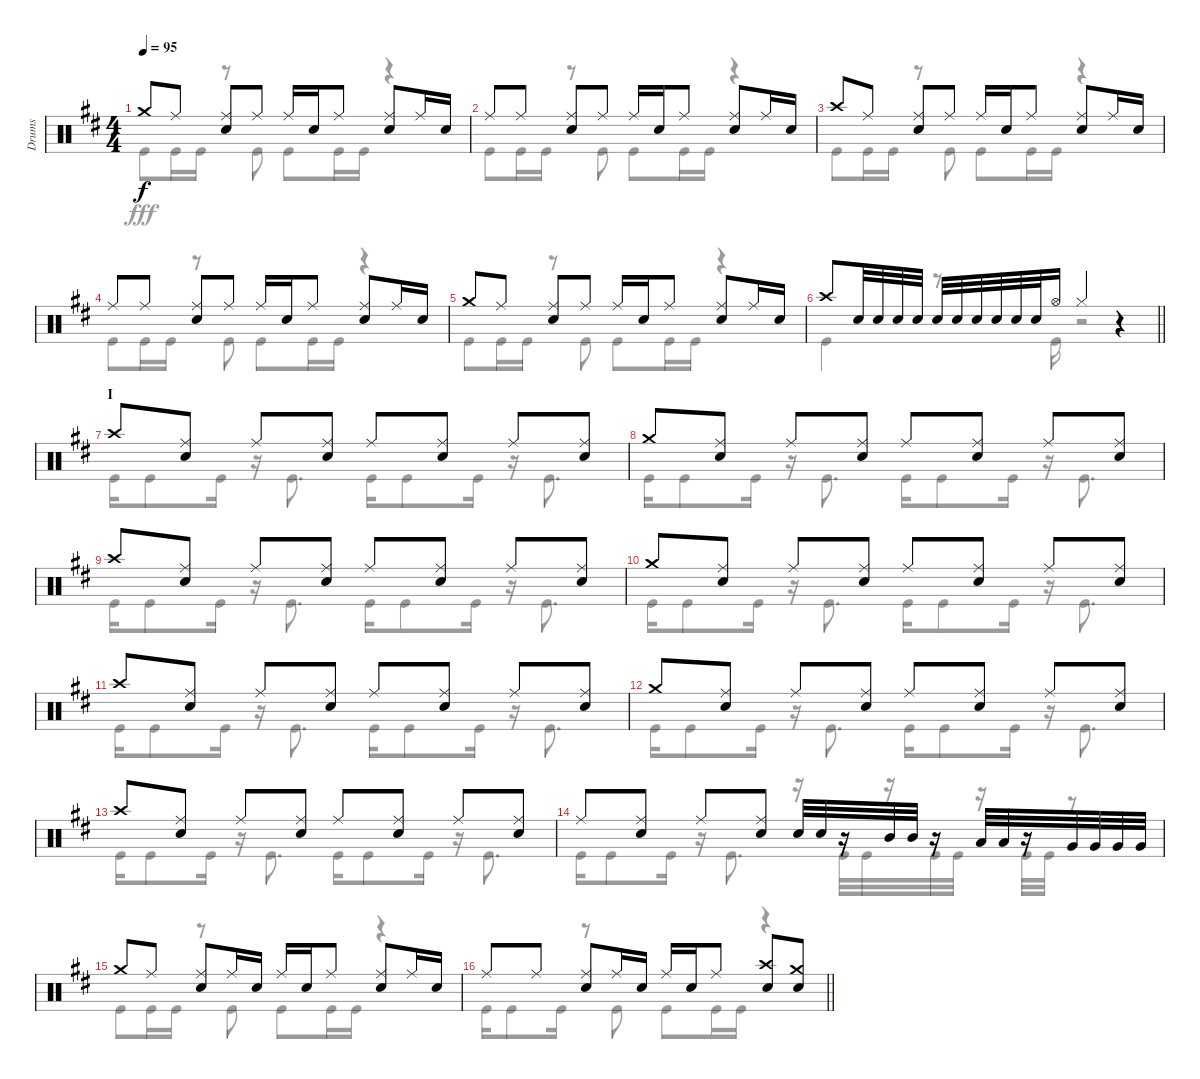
\track ("Drums" "Drums") {instrument percussion}
\staff {score}
\articulation defaults
\voice
\ts (4 4)
\tempo 95
\clef neutral
\ks d "Crash medium (hit)".8{dy f} "Ride (middle)".8
("Ride (middle)" "Snare (hit) 2").8 "Ride (middle)".8 "Ride (middle)".16 "Snare (hit) 2".16 "Ride (middle)".8 ("Ride (middle)" "Snare (hit) 2").8 "Ride (middle)".16 "Snare (hit) 2".16 |
"Ride (middle)".8 "Ride (middle)".8 ("Ride (middle)" "Snare (hit) 2").8 "Ride (middle)".8 "Ride (middle)".16 "Snare (hit) 2".16 "Ride (middle)".8 ("Ride (middle)" "Snare (hit) 2").8 "Ride (middle)".16 "Snare (hit) 2".16 |
"Crash high (hit)".8 "Ride (middle)".8 ("Ride (middle)" "Snare (hit) 2").8 "Ride (middle)".8 "Ride (middle)".16 "Snare (hit) 2".16 "Ride (middle)".8 ("Ride (middle)" "Snare (hit) 2").8 "Ride (middle)".16 "Snare (hit) 2".16 |
"Ride (middle)".8 "Ride (middle)".8 ("Ride (middle)" "Snare (hit) 2").8 "Ride (middle)".8 "Ride (middle)".16 "Snare (hit) 2".16 "Ride (middle)".8 ("Ride (middle)" "Snare (hit) 2").8 "Ride (middle)".16 "Snare (hit) 2".16 |
"Crash medium (hit)".8 "Ride (middle)".8 ("Ride (middle)" "Snare (hit) 2").8 "Ride (middle)".8 "Ride (middle)".16 "Snare (hit) 2".16 "Ride (middle)".8 ("Ride (middle)" "Snare (hit) 2").8 "Ride (middle)".16 "Snare (hit) 2".16 |
\barLineRight lightlight "Crash high (hit)".8 "Snare (hit) 2".32 "Snare (hit) 2".32 "Snare (hit) 2".32 "Snare (hit) 2".32 "Snare (hit) 2".32 "Snare (hit) 2".32 "Snare (hit) 2".32 "Snare (hit) 2".32 "Snare (hit) 2".32 "Snare (hit) 2".32 "Hi-Hat (open)".16 "Hi-Hat (closed)".4
r.4 |
\section ("" "I")
"Crash high (hit)".8 ("Ride (middle)" "Snare (hit) 2").8 "Ride (middle)".8 ("Ride (middle)" "Snare (hit) 2").8 "Ride (middle)".8 ("Ride (middle)" "Snare (hit) 2").8 "Ride (middle)".8 ("Ride (middle)" "Snare (hit) 2").8 |
"Crash medium (hit)".8 ("Ride (middle)" "Snare (hit) 2").8 "Ride (middle)".8 ("Ride (middle)" "Snare (hit) 2").8 "Ride (middle)".8 ("Ride (middle)" "Snare (hit) 2").8 "Ride (middle)".8 ("Ride (middle)" "Snare (hit) 2").8 |
"Crash high (hit)".8 ("Ride (middle)" "Snare (hit) 2").8 "Ride (middle)".8 ("Ride (middle)" "Snare (hit) 2").8 "Ride (middle)".8 ("Ride (middle)" "Snare (hit) 2").8 "Ride (middle)".8 ("Ride (middle)" "Snare (hit) 2").8 |
"Crash medium (hit)".8 ("Ride (middle)" "Snare (hit) 2").8 "Ride (middle)".8 ("Ride (middle)" "Snare (hit) 2").8 "Ride (middle)".8 ("Ride (middle)" "Snare (hit) 2").8 "Ride (middle)".8 ("Ride (middle)" "Snare (hit) 2").8 |
"Crash high (hit)".8 ("Ride (middle)" "Snare (hit) 2").8 "Ride (middle)".8 ("Ride (middle)" "Snare (hit) 2").8 "Ride (middle)".8 ("Ride (middle)" "Snare (hit) 2").8 "Ride (middle)".8 ("Ride (middle)" "Snare (hit) 2").8 |
"Crash medium (hit)".8 ("Ride (middle)" "Snare (hit) 2").8 "Ride (middle)".8 ("Ride (middle)" "Snare (hit) 2").8 "Ride (middle)".8 ("Ride (middle)" "Snare (hit) 2").8 "Ride (middle)".8 ("Ride (middle)" "Snare (hit) 2").8 |
"Crash high (hit)".8 ("Ride (middle)" "Snare (hit) 2").8 "Ride (middle)".8 ("Ride (middle)" "Snare (hit) 2").8 "Ride (middle)".8 ("Ride (middle)" "Snare (hit) 2").8 "Ride (middle)".8 ("Ride (middle)" "Snare (hit) 2").8 |
"Ride (middle)".8 ("Ride (middle)" "Snare (hit) 2").8 "Ride (middle)".8 ("Ride (middle)" "Snare (hit) 2").8 "Snare (hit) 2".32 "Snare (hit) 2".32 r.16 "Mid Tom (hit)".32 "Mid Tom (hit)".32 r.16 "Low Tom (hit)".32 "Low Tom (hit)".32 r.16 "Very Low Tom (hit)".32 "Very Low Tom (hit)".32 "Very Low Tom (hit)".32 "Very Low Tom (hit)".32 |
"Crash medium (hit)".8 "Ride (middle)".8 ("Ride (middle)" "Snare (hit) 2").8 "Ride (middle)".16 "Snare (hit) 2".16 "Ride (middle)".16 "Snare (hit) 2".16 "Ride (middle)".8 ("Ride (middle)" "Snare (hit) 2").8 "Ride (middle)".16 "Snare (hit) 2".16 |
\barLineRight lightlight "Ride (middle)".8 "Ride (middle)".8
("Ride (middle)" "Snare (hit) 2").8 "Ride (middle)".16 "Snare (hit) 2".16 "Ride (middle)".16 "Snare (hit) 2".16 "Ride (middle)".8 ("Crash high (hit)" "Snare (hit) 2").8 ("Crash medium (hit)" "Snare (hit) 2").8
\voice
\clef neutral
\ottava regular
\simile none
\ks d "Kick (hit)".8{dy fff} "Kick (hit)".16 "Kick (hit)".16
r.8 "Kick (hit)".8 "Kick (hit)".8 "Kick (hit)".16 "Kick (hit)".16 r.4 |
"Kick (hit)".8 "Kick (hit)".16 "Kick (hit)".16 r.8 "Kick (hit)".8 "Kick (hit)".8 "Kick (hit)".16 "Kick (hit)".16 r.4 |
"Kick (hit)".8 "Kick (hit)".16 "Kick (hit)".16 r.8 "Kick (hit)".8 "Kick (hit)".8 "Kick (hit)".16 "Kick (hit)".16 r.4 |
"Kick (hit)".8 "Kick (hit)".16 "Kick (hit)".16 r.8 "Kick (hit)".8 "Kick (hit)".8 "Kick (hit)".16 "Kick (hit)".16 r.4 |
"Kick (hit)".8 "Kick (hit)".16 "Kick (hit)".16 r.8 "Kick (hit)".8 "Kick (hit)".8 "Kick (hit)".16 "Kick (hit)".16 r.4 |
\barLineRight lightlight "Kick (hit)".4
r.8{d} "Kick (hit)".16 r.2 |
"Kick (hit)".16 "Kick (hit)".8 "Kick (hit)".16 r.16 "Kick (hit)".8{d} "Kick (hit)".16 "Kick (hit)".8 "Kick (hit)".16 r.16 "Kick (hit)".8{d} |
"Kick (hit)".16 "Kick (hit)".8 "Kick (hit)".16 r.16 "Kick (hit)".8{d} "Kick (hit)".16 "Kick (hit)".8 "Kick (hit)".16 r.16 "Kick (hit)".8{d} |
"Kick (hit)".16 "Kick (hit)".8 "Kick (hit)".16 r.16 "Kick (hit)".8{d} "Kick (hit)".16 "Kick (hit)".8 "Kick (hit)".16 r.16 "Kick (hit)".8{d} |
"Kick (hit)".16 "Kick (hit)".8 "Kick (hit)".16 r.16 "Kick (hit)".8{d} "Kick (hit)".16 "Kick (hit)".8 "Kick (hit)".16 r.16 "Kick (hit)".8{d} |
"Kick (hit)".16 "Kick (hit)".8 "Kick (hit)".16 r.16 "Kick (hit)".8{d} "Kick (hit)".16 "Kick (hit)".8 "Kick (hit)".16 r.16 "Kick (hit)".8{d} |
"Kick (hit)".16 "Kick (hit)".8 "Kick (hit)".16 r.16 "Kick (hit)".8{d} "Kick (hit)".16 "Kick (hit)".8 "Kick (hit)".16 r.16 "Kick (hit)".8{d} |
"Kick (hit)".16 "Kick (hit)".8 "Kick (hit)".16 r.16 "Kick (hit)".8{d} "Kick (hit)".16 "Kick (hit)".8 "Kick (hit)".16 r.16 "Kick (hit)".8{d} |
"Kick (hit)".16 "Kick (hit)".8 "Kick (hit)".16 r.16 "Kick (hit)".8{d} r.16 "Kick (hit)".32 "Kick (hit)".32 r.16 "Kick (hit)".32 "Kick (hit)".32 r.16 "Kick (hit)".32 "Kick (hit)".32 r.8 |
"Kick (hit)".8 "Kick (hit)".16 "Kick (hit)".16 r.8 "Kick (hit)".8 "Kick (hit)".8 "Kick (hit)".16 "Kick (hit)".16 r.4 |
\barLineRight lightlight "Kick (hit)".16 "Kick (hit)".8 "Kick (hit)".16
r.8 "Kick (hit)".8 "Kick (hit)".8 "Kick (hit)".16 "Kick (hit)".16 r.4
